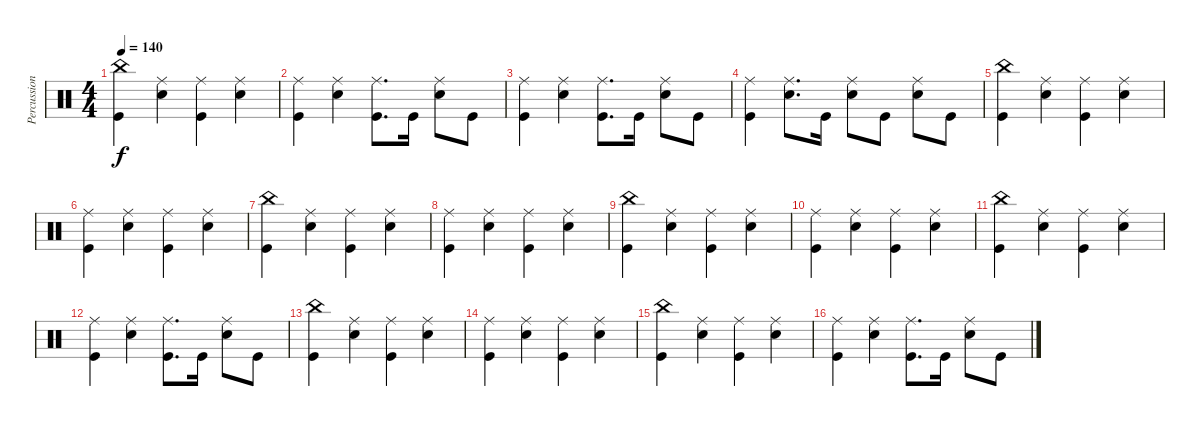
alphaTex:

\track ("Percussion" "Percussion") {instrument percussion}
\staff {score}
\articulation defaults
\ts (4 4)
\tempo 140
\clef neutral
\ks c
("China (hit)" "Kick (hit)").4{dy f} ("Ride (middle)" "Electric Snare (hit)").4 ("Ride (middle)" "Kick (hit)").4 ("Ride (middle)" "Electric Snare (hit)").4 |
("Ride (middle)" "Kick (hit)").4 ("Ride (middle)" "Electric Snare (hit)").4 ("Ride (middle)" "Kick (hit)").8{d} "Kick (hit)".16 ("Ride (middle)" "Electric Snare (hit)").8 "Kick (hit)".8 |
("Ride (middle)" "Kick (hit)").4 ("Ride (middle)" "Electric Snare (hit)").4 ("Ride (middle)" "Kick (hit)").8{d} "Kick (hit)".16 ("Ride (middle)" "Electric Snare (hit)").8 "Kick (hit)".8 |
("Ride (middle)" "Kick (hit)").4 ("Ride (middle)" "Electric Snare (hit)").8{d} "Kick (hit)".16 ("Ride (middle)" "Electric Snare (hit)").8 "Kick (hit)".8 ("Ride (middle)" "Electric Snare (hit)").8 "Kick (hit)".8 |
("China (hit)" "Kick (hit)").4 ("Ride (middle)" "Electric Snare (hit)").4 ("Ride (middle)" "Kick (hit)").4 ("Ride (middle)" "Electric Snare (hit)").4 |
("Ride (middle)" "Kick (hit)").4 ("Ride (middle)" "Electric Snare (hit)").4 ("Ride (middle)" "Kick (hit)").4 ("Ride (middle)" "Electric Snare (hit)").4 |
("China (hit)" "Kick (hit)").4 ("Ride (middle)" "Electric Snare (hit)").4 ("Ride (middle)" "Kick (hit)").4 ("Ride (middle)" "Electric Snare (hit)").4 |
("Ride (middle)" "Kick (hit)").4 ("Ride (middle)" "Electric Snare (hit)").4 ("Ride (middle)" "Kick (hit)").4 ("Ride (middle)" "Electric Snare (hit)").4 |
("China (hit)" "Kick (hit)").4 ("Ride (middle)" "Electric Snare (hit)").4 ("Ride (middle)" "Kick (hit)").4 ("Ride (middle)" "Electric Snare (hit)").4 |
("Ride (middle)" "Kick (hit)").4 ("Ride (middle)" "Electric Snare (hit)").4 ("Ride (middle)" "Kick (hit)").4 ("Ride (middle)" "Electric Snare (hit)").4 |
("China (hit)" "Kick (hit)").4 ("Ride (middle)" "Electric Snare (hit)").4 ("Ride (middle)" "Kick (hit)").4 ("Ride (middle)" "Electric Snare (hit)").4 |
("Ride (middle)" "Kick (hit)").4 ("Ride (middle)" "Electric Snare (hit)").4 ("Ride (middle)" "Kick (hit)").8{d} "Kick (hit)".16 ("Ride (middle)" "Electric Snare (hit)").8 "Kick (hit)".8 |
("China (hit)" "Kick (hit)").4 ("Ride (middle)" "Electric Snare (hit)").4 ("Ride (middle)" "Kick (hit)").4 ("Ride (middle)" "Electric Snare (hit)").4 |
("Ride (middle)" "Kick (hit)").4 ("Ride (middle)" "Electric Snare (hit)").4 ("Ride (middle)" "Kick (hit)").4 ("Ride (middle)" "Electric Snare (hit)").4 |
("China (hit)" "Kick (hit)").4 ("Ride (middle)" "Electric Snare (hit)").4 ("Ride (middle)" "Kick (hit)").4 ("Ride (middle)" "Electric Snare (hit)").4 |
("Ride (middle)" "Kick (hit)").4 ("Ride (middle)" "Electric Snare (hit)").4 ("Ride (middle)" "Kick (hit)").8{d} "Kick (hit)".16 ("Ride (middle)" "Electric Snare (hit)").8 "Kick (hit)".8
